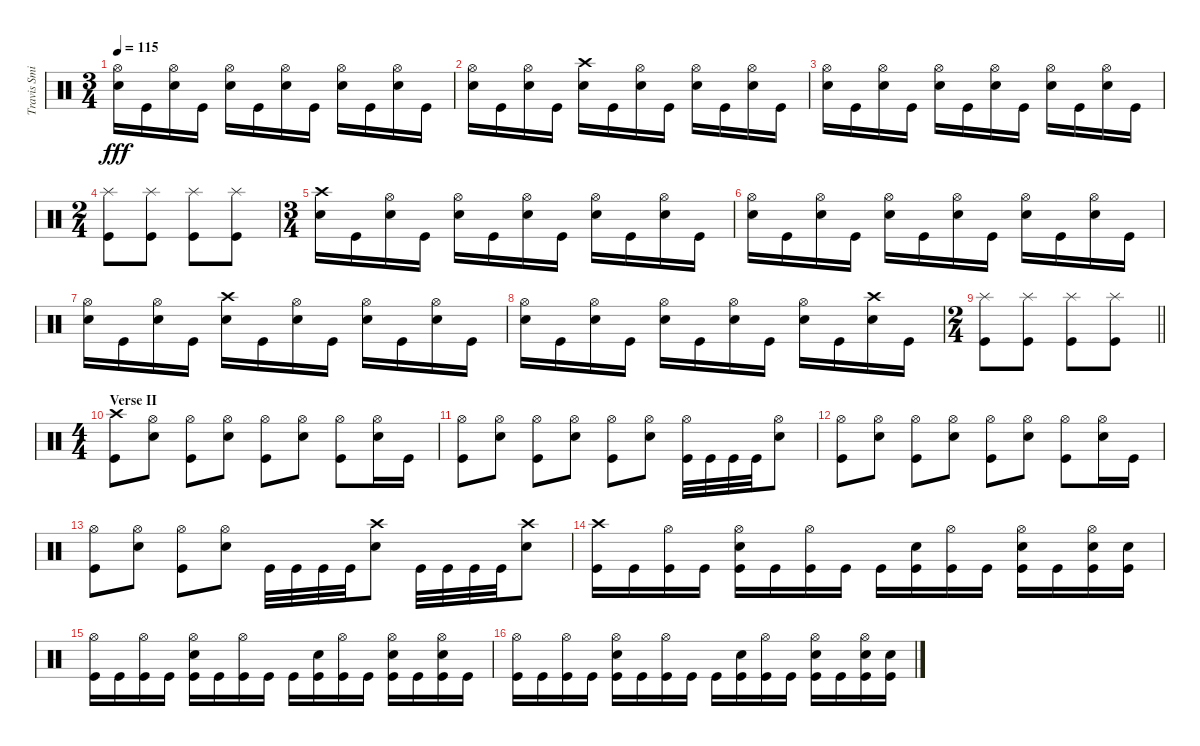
\track ("Travis Smith" "Travis Smi") {instrument percussion}
\staff {score}
\articulation defaults
\ts (3 4)
\tempo 115
\clef neutral
\ks c
("Hi-Hat (open)" "Snare (hit) 2").16{dy fff} "Kick (hit)".16 ("Hi-Hat (open)" "Snare (hit) 2").16 "Kick (hit)".16 ("Hi-Hat (open)" "Snare (hit) 2").16 "Kick (hit)".16 ("Hi-Hat (open)" "Snare (hit) 2").16 "Kick (hit)".16 ("Hi-Hat (open)" "Snare (hit) 2").16 "Kick (hit)".16 ("Hi-Hat (open)" "Snare (hit) 2").16 "Kick (hit)".16 |
("Hi-Hat (open)" "Snare (hit) 2").16 "Kick (hit)".16 ("Hi-Hat (open)" "Snare (hit) 2").16 "Kick (hit)".16 ("Crash high (hit)" "Snare (hit) 2").16 "Kick (hit)".16 ("Hi-Hat (open)" "Snare (hit) 2").16 "Kick (hit)".16 ("Hi-Hat (open)" "Snare (hit) 2").16 "Kick (hit)".16 ("Hi-Hat (open)" "Snare (hit) 2").16 "Kick (hit)".16 |
("Hi-Hat (open)" "Snare (hit) 2").16 "Kick (hit)".16 ("Hi-Hat (open)" "Snare (hit) 2").16 "Kick (hit)".16 ("Hi-Hat (open)" "Snare (hit) 2").16 "Kick (hit)".16 ("Hi-Hat (open)" "Snare (hit) 2").16 "Kick (hit)".16 ("Hi-Hat (open)" "Snare (hit) 2").16 "Kick (hit)".16 ("Hi-Hat (open)" "Snare (hit) 2").16 "Kick (hit)".16 |
\ts (2 4)
("Splash (hit)" "Kick (hit)").8 ("Splash (hit)" "Kick (hit)").8 ("Splash (hit)" "Kick (hit)").8 ("Splash (hit)" "Kick (hit)").8 |
\ts (3 4)
("Crash high (hit)" "Snare (hit) 2").16 "Kick (hit)".16 ("Hi-Hat (open)" "Snare (hit) 2").16 "Kick (hit)".16 ("Hi-Hat (open)" "Snare (hit) 2").16 "Kick (hit)".16 ("Hi-Hat (open)" "Snare (hit) 2").16 "Kick (hit)".16 ("Hi-Hat (open)" "Snare (hit) 2").16 "Kick (hit)".16 ("Hi-Hat (open)" "Snare (hit) 2").16 "Kick (hit)".16 |
("Hi-Hat (open)" "Snare (hit) 2").16 "Kick (hit)".16 ("Hi-Hat (open)" "Snare (hit) 2").16 "Kick (hit)".16 ("Hi-Hat (open)" "Snare (hit) 2").16 "Kick (hit)".16 ("Hi-Hat (open)" "Snare (hit) 2").16 "Kick (hit)".16 ("Hi-Hat (open)" "Snare (hit) 2").16 "Kick (hit)".16 ("Hi-Hat (open)" "Snare (hit) 2").16 "Kick (hit)".16 |
("Hi-Hat (open)" "Snare (hit) 2").16 "Kick (hit)".16 ("Hi-Hat (open)" "Snare (hit) 2").16 "Kick (hit)".16 ("Crash high (hit)" "Snare (hit) 2").16 "Kick (hit)".16 ("Hi-Hat (open)" "Snare (hit) 2").16 "Kick (hit)".16 ("Hi-Hat (open)" "Snare (hit) 2").16 "Kick (hit)".16 ("Hi-Hat (open)" "Snare (hit) 2").16 "Kick (hit)".16 |
("Hi-Hat (open)" "Snare (hit) 2").16 "Kick (hit)".16 ("Hi-Hat (open)" "Snare (hit) 2").16 "Kick (hit)".16 ("Hi-Hat (open)" "Snare (hit) 2").16 "Kick (hit)".16 ("Hi-Hat (open)" "Snare (hit) 2").16 "Kick (hit)".16 ("Hi-Hat (open)" "Snare (hit) 2").16 "Kick (hit)".16 ("Crash high (hit)" "Snare (hit) 2").16 "Kick (hit)".16 |
\ts (2 4)
\barLineRight lightlight
("Splash (hit)" "Kick (hit)").8 ("Splash (hit)" "Kick (hit)").8 ("Splash (hit)" "Kick (hit)").8 ("Splash (hit)" "Kick (hit)").8 |
\ts (4 4)
\section ("" "Verse II")
("Crash high (hit)" "Kick (hit)").8 ("Hi-Hat (open)" "Snare (hit) 2").8 ("Hi-Hat (open)" "Kick (hit)").8 ("Hi-Hat (open)" "Snare (hit) 2").8 ("Hi-Hat (open)" "Kick (hit)").8 ("Hi-Hat (open)" "Snare (hit) 2").8 ("Hi-Hat (open)" "Kick (hit)").8 ("Hi-Hat (open)" "Snare (hit) 2").16 "Kick (hit)".16 |
("Hi-Hat (open)" "Kick (hit)").8 ("Hi-Hat (open)" "Snare (hit) 2").8 ("Hi-Hat (open)" "Kick (hit)").8 ("Hi-Hat (open)" "Snare (hit) 2").8 ("Hi-Hat (open)" "Kick (hit)").8 ("Hi-Hat (open)" "Snare (hit) 2").8 ("Hi-Hat (open)" "Kick (hit)").32 "Kick (hit)".32 "Kick (hit)".32 "Kick (hit)".32 ("Hi-Hat (open)" "Snare (hit) 2").8 |
("Hi-Hat (open)" "Kick (hit)").8 ("Hi-Hat (open)" "Snare (hit) 2").8 ("Hi-Hat (open)" "Kick (hit)").8 ("Hi-Hat (open)" "Snare (hit) 2").8 ("Hi-Hat (open)" "Kick (hit)").8 ("Hi-Hat (open)" "Snare (hit) 2").8 ("Hi-Hat (open)" "Kick (hit)").8 ("Hi-Hat (open)" "Snare (hit) 2").16 "Kick (hit)".16 |
("Hi-Hat (open)" "Kick (hit)").8 ("Hi-Hat (open)" "Snare (hit) 2").8 ("Hi-Hat (open)" "Kick (hit)").8 ("Hi-Hat (open)" "Snare (hit) 2").8 "Kick (hit)".32 "Kick (hit)".32 "Kick (hit)".32 "Kick (hit)".32 ("Crash high (hit)" "Snare (hit) 2").8 "Kick (hit)".32 "Kick (hit)".32 "Kick (hit)".32 "Kick (hit)".32 ("Crash high (hit)" "Snare (hit) 2").8 |
("Crash high (hit)" "Kick (hit)").16 "Kick (hit)".16 ("Hi-Hat (open)" "Kick (hit)").16 "Kick (hit)".16 ("Hi-Hat (open)" "Snare (hit) 2" "Kick (hit)").16 "Kick (hit)".16 ("Hi-Hat (open)" "Kick (hit)").16 "Kick (hit)".16 "Kick (hit)".16 ("Snare (hit) 2" "Kick (hit)").16 ("Hi-Hat (open)" "Kick (hit)").16 "Kick (hit)".16 ("Hi-Hat (open)" "Snare (hit) 2" "Kick (hit)").16 "Kick (hit)".16 ("Hi-Hat (open)" "Snare (hit) 2" "Kick (hit)").16 ("Snare (hit) 2" "Kick (hit)").16 |
("Hi-Hat (open)" "Kick (hit)").16 "Kick (hit)".16 ("Hi-Hat (open)" "Kick (hit)").16 "Kick (hit)".16 ("Hi-Hat (open)" "Snare (hit) 2" "Kick (hit)").16 "Kick (hit)".16 ("Hi-Hat (open)" "Kick (hit)").16 "Kick (hit)".16 "Kick (hit)".16 ("Snare (hit) 2" "Kick (hit)").16 ("Hi-Hat (open)" "Kick (hit)").16 "Kick (hit)".16 ("Hi-Hat (open)" "Snare (hit) 2" "Kick (hit)").16 "Kick (hit)".16 ("Hi-Hat (open)" "Snare (hit) 2" "Kick (hit)").16 "Kick (hit)".16 |
("Hi-Hat (open)" "Kick (hit)").16 "Kick (hit)".16 ("Hi-Hat (open)" "Kick (hit)").16 "Kick (hit)".16 ("Hi-Hat (open)" "Snare (hit) 2" "Kick (hit)").16 "Kick (hit)".16 ("Hi-Hat (open)" "Kick (hit)").16 "Kick (hit)".16 "Kick (hit)".16 ("Snare (hit) 2" "Kick (hit)").16 ("Hi-Hat (open)" "Kick (hit)").16 "Kick (hit)".16 ("Hi-Hat (open)" "Snare (hit) 2" "Kick (hit)").16 "Kick (hit)".16 ("Hi-Hat (open)" "Snare (hit) 2" "Kick (hit)").16 ("Snare (hit) 2" "Kick (hit)").16
